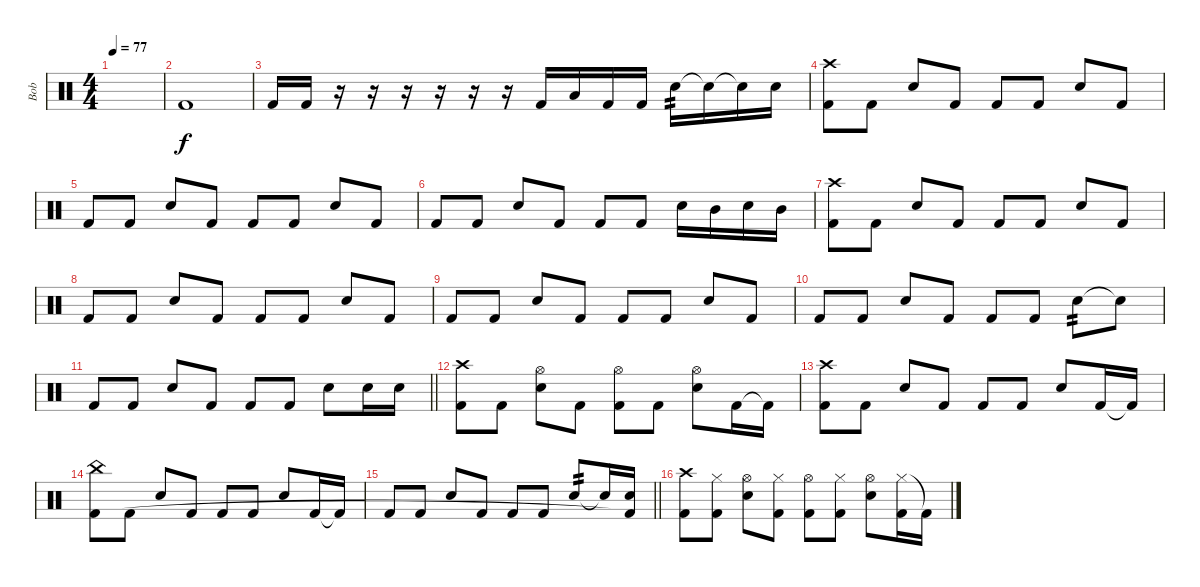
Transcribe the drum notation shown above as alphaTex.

\track ("Bob" "Bob") {instrument percussion}
\staff {score}
\articulation defaults
\ts (4 4)
\tempo 77
\clef neutral
\ks c
|
"Kick (hit) 2".1 |
"Kick (hit) 2".16 "Kick (hit) 2".16 r.16 r.16 r.16 r.16 r.16 r.16 "Kick (hit) 2".16 "Low Tom (hit)".16 "Kick (hit) 2".16 "Kick (hit) 2".16 "Electric Snare (hit)".16{tp 2} "Electric Snare (hit)"{t}.16 "Snare (hit)"{t}.16 "Electric Snare (hit)".16 |
("Crash high (hit)" "Kick (hit) 2").8 "Kick (hit) 2".8 "Electric Snare (hit)".8 "Kick (hit) 2".8 "Kick (hit) 2".8 "Kick (hit) 2".8 "Electric Snare (hit)".8 "Kick (hit) 2".8 |
"Kick (hit) 2".8 "Kick (hit) 2".8 "Electric Snare (hit)".8 "Kick (hit) 2".8 "Kick (hit) 2".8 "Kick (hit) 2".8 "Electric Snare (hit)".8 "Kick (hit) 2".8 |
"Kick (hit) 2".8 "Kick (hit) 2".8 "Electric Snare (hit)".8 "Kick (hit) 2".8 "Kick (hit) 2".8 "Kick (hit) 2".8 "Electric Snare (hit)".16 "Mid Tom (hit)".16 "Electric Snare (hit)".16 "Mid Tom (hit)".16 |
("Crash high (hit)" "Kick (hit) 2").8 "Kick (hit) 2".8 "Electric Snare (hit)".8 "Kick (hit) 2".8 "Kick (hit) 2".8 "Kick (hit) 2".8 "Electric Snare (hit)".8 "Kick (hit) 2".8 |
"Kick (hit) 2".8 "Kick (hit) 2".8 "Electric Snare (hit)".8 "Kick (hit) 2".8 "Kick (hit) 2".8 "Kick (hit) 2".8 "Electric Snare (hit)".8 "Kick (hit) 2".8 |
"Kick (hit) 2".8 "Kick (hit) 2".8 "Electric Snare (hit)".8 "Kick (hit) 2".8 "Kick (hit) 2".8 "Kick (hit) 2".8 "Electric Snare (hit)".8 "Kick (hit) 2".8 |
"Kick (hit) 2".8 "Kick (hit) 2".8 "Electric Snare (hit)".8 "Kick (hit) 2".8 "Kick (hit) 2".8 "Kick (hit) 2".8 "Electric Snare (hit)".8{tp 2} "Snare (hit)"{t}.8 |
\barLineRight lightlight "Kick (hit) 2".8 "Kick (hit) 2".8 "Electric Snare (hit)".8 "Kick (hit) 2".8 "Kick (hit) 2".8 "Kick (hit) 2".8 "Electric Snare (hit)".8 "Electric Snare (hit)".16 "Electric Snare (hit)".16
|
("Crash high (hit)" "Kick (hit) 2").8 "Kick (hit) 2".8 ("Hi-Hat (open)" "Electric Snare (hit)").8 "Kick (hit) 2".8 ("Hi-Hat (open)" "Kick (hit) 2").8 "Kick (hit) 2".8 ("Hi-Hat (open)" "Electric Snare (hit)").8 "Kick (hit) 2".16 "Kick (hit) 2"{t}.16 |
("Crash high (hit)" "Kick (hit) 2").8 "Kick (hit) 2".8 "Electric Snare (hit)".8 "Kick (hit) 2".8 "Kick (hit) 2".8 "Kick (hit) 2".8 "Electric Snare (hit)".8 "Kick (hit) 2".16 "Kick (hit) 2"{t}.16 |
("China (hit)" "Kick (hit) 2").8 "Kick (hit) 2".8 "Electric Snare (hit)".8 "Kick (hit) 2".8 "Kick (hit) 2".8 "Kick (hit) 2".8 "Electric Snare (hit)".8 "Kick (hit) 2".16 "Kick (hit) 2"{t}.16 |
\barLineRight lightlight "Kick (hit) 2".8 "Kick (hit) 2".8 "Electric Snare (hit)".8 "Kick (hit) 2".8 "Kick (hit) 2".8 "Kick (hit) 2".8 "Electric Snare (hit)".8{tp 2} "Snare (hit)"{t}.16
("Electric Snare (hit)" "Kick (hit) 2"{t}).16 |
("Crash high (hit)" "Kick (hit) 2").8 ("Hi-Hat (closed)" "Kick (hit) 2").8 ("Hi-Hat (open)" "Electric Snare (hit)").8 ("Hi-Hat (closed)" "Kick (hit) 2").8 ("Hi-Hat (open)" "Kick (hit) 2").8 ("Hi-Hat (closed)" "Kick (hit) 2").8 ("Hi-Hat (open)" "Electric Snare (hit)").8 ("Hi-Hat (closed)" "Kick (hit) 2").16 "Kick (hit) 2"{t}.16
